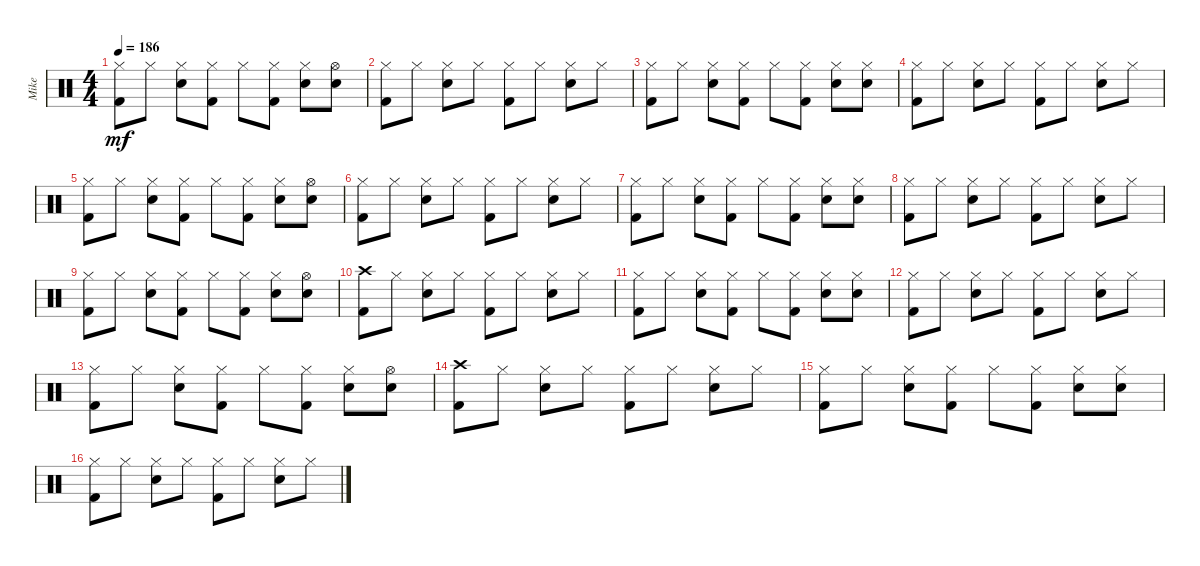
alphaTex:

\track ("Mike" "Mike") {instrument percussion}
\staff {score}
\articulation defaults
\ts (4 4)
\tempo 186
\clef neutral
\ks c
("Hi-Hat (closed)" "Kick (hit) 2").8{dy mf} "Hi-Hat (closed)".8 ("Hi-Hat (closed)" "Snare (hit) 2").8 ("Hi-Hat (closed)" "Kick (hit) 2").8 "Hi-Hat (closed)".8 ("Hi-Hat (closed)" "Kick (hit) 2").8 ("Hi-Hat (closed)" "Snare (hit) 2").8 ("Hi-Hat (open)" "Snare (hit) 2").8 |
("Hi-Hat (closed)" "Kick (hit) 2").8 "Hi-Hat (closed)".8 ("Hi-Hat (closed)" "Snare (hit) 2").8 "Hi-Hat (closed)".8 ("Hi-Hat (closed)" "Kick (hit) 2").8 "Hi-Hat (closed)".8 ("Hi-Hat (closed)" "Snare (hit) 2").8 "Hi-Hat (closed)".8 |
("Hi-Hat (closed)" "Kick (hit) 2").8 "Hi-Hat (closed)".8 ("Hi-Hat (closed)" "Snare (hit) 2").8 ("Hi-Hat (closed)" "Kick (hit) 2").8 "Hi-Hat (closed)".8 ("Hi-Hat (closed)" "Kick (hit) 2").8 ("Hi-Hat (closed)" "Snare (hit) 2").8 ("Hi-Hat (closed)" "Snare (hit) 2").8 |
("Hi-Hat (closed)" "Kick (hit) 2").8 "Hi-Hat (closed)".8 ("Hi-Hat (closed)" "Snare (hit) 2").8 "Hi-Hat (closed)".8 ("Hi-Hat (closed)" "Kick (hit) 2").8 "Hi-Hat (closed)".8 ("Hi-Hat (closed)" "Snare (hit) 2").8 "Hi-Hat (closed)".8 |
("Hi-Hat (closed)" "Kick (hit) 2").8 "Hi-Hat (closed)".8 ("Hi-Hat (closed)" "Snare (hit) 2").8 ("Hi-Hat (closed)" "Kick (hit) 2").8 "Hi-Hat (closed)".8 ("Hi-Hat (closed)" "Kick (hit) 2").8 ("Hi-Hat (closed)" "Snare (hit) 2").8 ("Hi-Hat (open)" "Snare (hit) 2").8 |
("Hi-Hat (closed)" "Kick (hit) 2").8 "Hi-Hat (closed)".8 ("Hi-Hat (closed)" "Snare (hit) 2").8 "Hi-Hat (closed)".8 ("Hi-Hat (closed)" "Kick (hit) 2").8 "Hi-Hat (closed)".8 ("Hi-Hat (closed)" "Snare (hit) 2").8 "Hi-Hat (closed)".8 |
("Hi-Hat (closed)" "Kick (hit) 2").8 "Hi-Hat (closed)".8 ("Hi-Hat (closed)" "Snare (hit) 2").8 ("Hi-Hat (closed)" "Kick (hit) 2").8 "Hi-Hat (closed)".8 ("Hi-Hat (closed)" "Kick (hit) 2").8 ("Hi-Hat (closed)" "Snare (hit) 2").8 ("Hi-Hat (closed)" "Snare (hit) 2").8 |
("Hi-Hat (closed)" "Kick (hit) 2").8 "Hi-Hat (closed)".8 ("Hi-Hat (closed)" "Snare (hit) 2").8 "Hi-Hat (closed)".8 ("Hi-Hat (closed)" "Kick (hit) 2").8 "Hi-Hat (closed)".8 ("Hi-Hat (closed)" "Snare (hit) 2").8 "Hi-Hat (closed)".8 |
("Hi-Hat (closed)" "Kick (hit) 2").8 "Hi-Hat (closed)".8 ("Hi-Hat (closed)" "Snare (hit) 2").8 ("Hi-Hat (closed)" "Kick (hit) 2").8 "Hi-Hat (closed)".8 ("Hi-Hat (closed)" "Kick (hit) 2").8 ("Hi-Hat (closed)" "Snare (hit) 2").8 ("Hi-Hat (open)" "Snare (hit) 2").8 |
("Crash high (hit)" "Kick (hit) 2").8 "Hi-Hat (closed)".8 ("Hi-Hat (closed)" "Snare (hit) 2").8 "Hi-Hat (closed)".8 ("Hi-Hat (closed)" "Kick (hit) 2").8 "Hi-Hat (closed)".8 ("Hi-Hat (closed)" "Snare (hit) 2").8 "Hi-Hat (closed)".8 |
("Hi-Hat (closed)" "Kick (hit) 2").8 "Hi-Hat (closed)".8 ("Hi-Hat (closed)" "Snare (hit) 2").8 ("Hi-Hat (closed)" "Kick (hit) 2").8 "Hi-Hat (closed)".8 ("Hi-Hat (closed)" "Kick (hit) 2").8 ("Hi-Hat (closed)" "Snare (hit) 2").8 ("Hi-Hat (closed)" "Snare (hit) 2").8 |
("Hi-Hat (closed)" "Kick (hit) 2").8 "Hi-Hat (closed)".8 ("Hi-Hat (closed)" "Snare (hit) 2").8 "Hi-Hat (closed)".8 ("Hi-Hat (closed)" "Kick (hit) 2").8 "Hi-Hat (closed)".8 ("Hi-Hat (closed)" "Snare (hit) 2").8 "Hi-Hat (closed)".8 |
("Hi-Hat (closed)" "Kick (hit) 2").8 "Hi-Hat (closed)".8 ("Hi-Hat (closed)" "Snare (hit) 2").8 ("Hi-Hat (closed)" "Kick (hit) 2").8 "Hi-Hat (closed)".8 ("Hi-Hat (closed)" "Kick (hit) 2").8 ("Hi-Hat (closed)" "Snare (hit) 2").8 ("Hi-Hat (open)" "Snare (hit) 2").8 |
("Crash high (hit)" "Kick (hit) 2").8 "Hi-Hat (closed)".8 ("Hi-Hat (closed)" "Snare (hit) 2").8 "Hi-Hat (closed)".8 ("Hi-Hat (closed)" "Kick (hit) 2").8 "Hi-Hat (closed)".8 ("Hi-Hat (closed)" "Snare (hit) 2").8 "Hi-Hat (closed)".8 |
("Hi-Hat (closed)" "Kick (hit) 2").8 "Hi-Hat (closed)".8 ("Hi-Hat (closed)" "Snare (hit) 2").8 ("Hi-Hat (closed)" "Kick (hit) 2").8 "Hi-Hat (closed)".8 ("Hi-Hat (closed)" "Kick (hit) 2").8 ("Hi-Hat (closed)" "Snare (hit) 2").8 ("Hi-Hat (closed)" "Snare (hit) 2").8 |
("Hi-Hat (closed)" "Kick (hit) 2").8 "Hi-Hat (closed)".8 ("Hi-Hat (closed)" "Snare (hit) 2").8 "Hi-Hat (closed)".8 ("Hi-Hat (closed)" "Kick (hit) 2").8 "Hi-Hat (closed)".8 ("Hi-Hat (closed)" "Snare (hit) 2").8 "Hi-Hat (closed)".8
